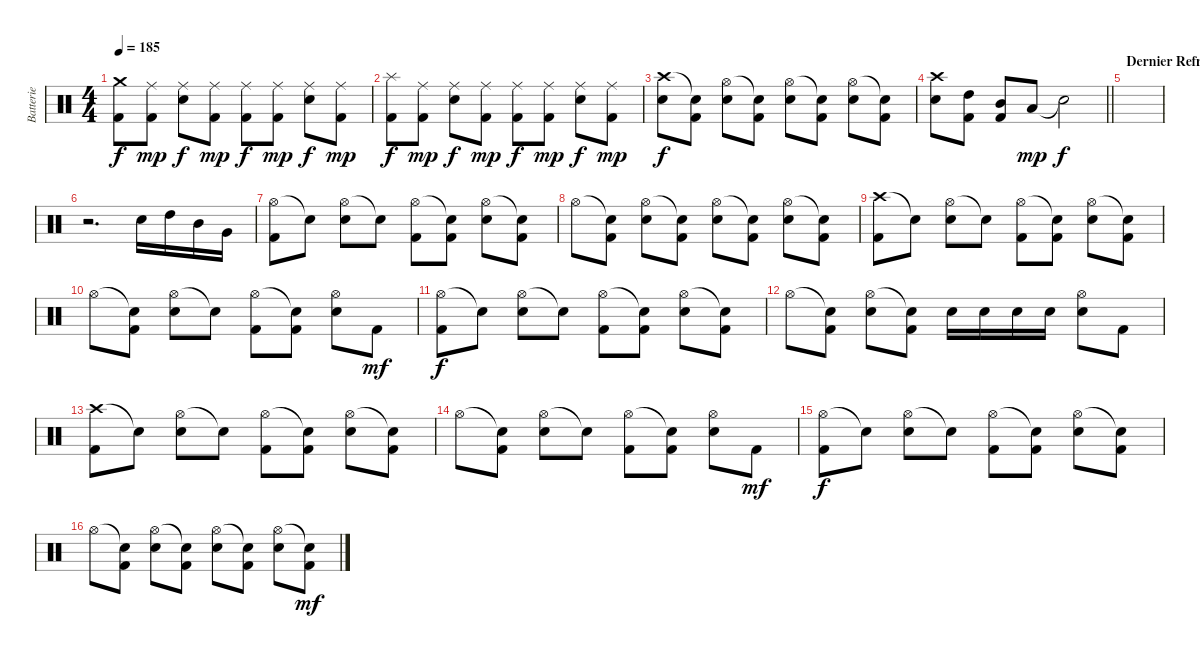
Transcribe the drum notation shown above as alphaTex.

\track ("Batterie" "Batterie") {instrument percussion}
\staff {score}
\articulation defaults
\ts (4 4)
\tempo 185
\clef neutral
\ks c
("Crash medium (hit)" "Kick (hit) 2").8{dy f} ("Ride (middle)" "Kick (hit) 2").8{dy mp} ("Ride (middle)" "Electric Snare (hit)").8{dy f} ("Ride (middle)" "Kick (hit) 2").8{dy mp} ("Ride (middle)" "Kick (hit) 2").8{dy f} ("Ride (middle)" "Kick (hit) 2").8{dy mp} ("Ride (middle)" "Electric Snare (hit)").8{dy f} ("Ride (middle)" "Kick (hit) 2").8{dy mp} |
("Splash (hit)" "Kick (hit) 2").8{dy f} ("Ride (middle)" "Kick (hit) 2").8{dy mp} ("Ride (middle)" "Electric Snare (hit)").8{dy f} ("Ride (middle)" "Kick (hit) 2").8{dy mp} ("Ride (middle)" "Kick (hit) 2").8{dy f} ("Ride (middle)" "Kick (hit) 2").8{dy mp} ("Ride (middle)" "Electric Snare (hit)").8{dy f} ("Ride (middle)" "Kick (hit) 2").8{dy mp} |
("Crash high (hit)" "Electric Snare (hit)").8{dy f} ("Snare (hit)"{t} "Kick (hit) 2").8 ("Hi-Hat (open)" "Electric Snare (hit)").8 ("Snare (hit)"{t} "Kick (hit) 2").8 ("Hi-Hat (open)" "Electric Snare (hit)").8 ("Snare (hit)"{t} "Kick (hit) 2").8 ("Hi-Hat (open)" "Electric Snare (hit)").8 ("Snare (hit)"{t} "Kick (hit) 2").8 |
\barLineRight lightlight
("Crash high (hit)" "Electric Snare (hit)").8 ("High Tom (hit)" "Kick (hit) 2").8 ("Mid Tom (hit)" "Kick (hit) 2").8 "Low Floor Tom (hit)".8{dy mp} "Snare (hit)"{t}.2{dy f} |
\section ("" "Dernier Refrain")
|
r.2{d} "Electric Snare (hit)".16 "High Tom (hit)".16 "Mid Tom (hit)".16 "Very Low Tom (hit)".16 |
("Hi-Hat (open)" "Kick (hit) 2").8 "Snare (hit)"{t}.8 ("Hi-Hat (open)" "Electric Snare (hit)").8 "Snare (hit)"{t}.8 ("Hi-Hat (open)" "Kick (hit) 2").8 ("Snare (hit)"{t} "Kick (hit) 2").8 ("Hi-Hat (open)" "Electric Snare (hit)").8 ("Snare (hit)"{t} "Kick (hit) 2").8 |
"Hi-Hat (open)".8 ("Snare (hit)"{t} "Kick (hit) 2").8 ("Hi-Hat (open)" "Electric Snare (hit)").8 ("Snare (hit)"{t} "Kick (hit) 2").8 ("Hi-Hat (open)" "Electric Snare (hit)").8 ("Snare (hit)"{t} "Kick (hit) 2").8 ("Hi-Hat (open)" "Electric Snare (hit)").8 ("Snare (hit)"{t} "Kick (hit) 2").8 |
("Crash high (hit)" "Kick (hit) 2").8 "Snare (hit)"{t}.8 ("Hi-Hat (open)" "Electric Snare (hit)").8 "Snare (hit)"{t}.8 ("Hi-Hat (open)" "Kick (hit) 2").8 ("Snare (hit)"{t} "Kick (hit) 2").8 ("Hi-Hat (open)" "Electric Snare (hit)").8 ("Snare (hit)"{t} "Kick (hit) 2").8 |
"Hi-Hat (open)".8 ("Snare (hit)"{t} "Kick (hit) 2").8 ("Hi-Hat (open)" "Electric Snare (hit)").8 "Snare (hit)"{t}.8 ("Hi-Hat (open)" "Kick (hit) 2").8 ("Snare (hit)"{t} "Kick (hit) 2").8 ("Hi-Hat (open)" "Electric Snare (hit)").8 "Kick (hit) 2".8{dy mf} |
("Hi-Hat (open)" "Kick (hit) 2").8{dy f} "Snare (hit)"{t}.8 ("Hi-Hat (open)" "Electric Snare (hit)").8 "Snare (hit)"{t}.8 ("Hi-Hat (open)" "Kick (hit) 2").8 ("Snare (hit)"{t} "Kick (hit) 2").8 ("Hi-Hat (open)" "Electric Snare (hit)").8 ("Snare (hit)"{t} "Kick (hit) 2").8 |
"Hi-Hat (open)".8 ("Snare (hit)"{t} "Kick (hit) 2").8 ("Hi-Hat (open)" "Electric Snare (hit)").8 ("Snare (hit)"{t} "Kick (hit) 2").8 "Electric Snare (hit)".16 "Electric Snare (hit)".16 "Electric Snare (hit)".16 "Electric Snare (hit)".16 ("Hi-Hat (open)" "Electric Snare (hit)").8 "Kick (hit) 2".8 |
("Crash high (hit)" "Kick (hit) 2").8 "Snare (hit)"{t}.8 ("Hi-Hat (open)" "Electric Snare (hit)").8 "Snare (hit)"{t}.8 ("Hi-Hat (open)" "Kick (hit) 2").8 ("Snare (hit)"{t} "Kick (hit) 2").8 ("Hi-Hat (open)" "Electric Snare (hit)").8 ("Snare (hit)"{t} "Kick (hit) 2").8 |
"Hi-Hat (open)".8 ("Snare (hit)"{t} "Kick (hit) 2").8 ("Hi-Hat (open)" "Electric Snare (hit)").8 "Snare (hit)"{t}.8 ("Hi-Hat (open)" "Kick (hit) 2").8 ("Snare (hit)"{t} "Kick (hit) 2").8 ("Hi-Hat (open)" "Electric Snare (hit)").8 "Kick (hit) 2".8{dy mf} |
("Hi-Hat (open)" "Kick (hit) 2").8{dy f} "Snare (hit)"{t}.8 ("Hi-Hat (open)" "Electric Snare (hit)").8 "Snare (hit)"{t}.8 ("Hi-Hat (open)" "Kick (hit) 2").8 ("Snare (hit)"{t} "Kick (hit) 2").8 ("Hi-Hat (open)" "Electric Snare (hit)").8 ("Snare (hit)"{t} "Kick (hit) 2").8 |
"Hi-Hat (open)".8 ("Snare (hit)"{t} "Kick (hit) 2").8 ("Hi-Hat (open)" "Electric Snare (hit)").8 ("Snare (hit)"{t} "Kick (hit) 2").8 ("Hi-Hat (open)" "Electric Snare (hit)").8 ("Snare (hit)"{t} "Kick (hit) 2").8 ("Hi-Hat (open)" "Electric Snare (hit)").8 ("Snare (hit)"{t} "Kick (hit) 2").8{dy mf}
